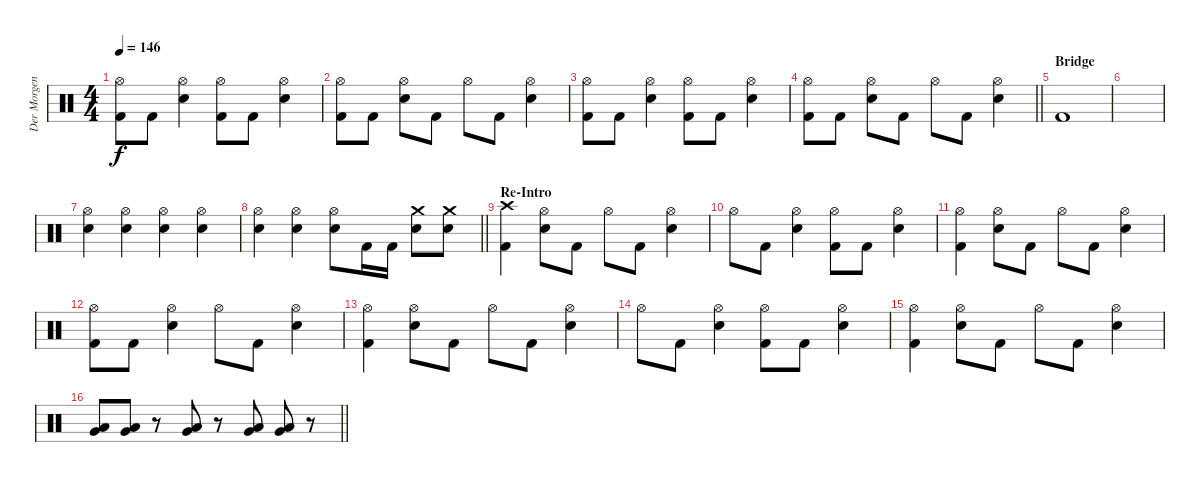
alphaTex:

\track ("Der Morgenstern" "Der Morgen") {instrument percussion}
\staff {score}
\articulation defaults
\ts (4 4)
\tempo 146
\clef neutral
\ks c
("Hi-Hat (open)" "Kick (hit) 2").8{dy f} "Kick (hit) 2".8 ("Hi-Hat (open)" "Electric Snare (hit)").4 ("Hi-Hat (open)" "Kick (hit) 2").8 "Kick (hit) 2".8 ("Hi-Hat (open)" "Electric Snare (hit)").4 |
("Hi-Hat (open)" "Kick (hit) 2").8 "Kick (hit) 2".8 ("Hi-Hat (open)" "Electric Snare (hit)").8 "Kick (hit) 2".8 "Hi-Hat (open)".8 "Kick (hit) 2".8 ("Hi-Hat (open)" "Electric Snare (hit)").4 |
("Hi-Hat (open)" "Kick (hit) 2").8 "Kick (hit) 2".8 ("Hi-Hat (open)" "Electric Snare (hit)").4 ("Hi-Hat (open)" "Kick (hit) 2").8 "Kick (hit) 2".8 ("Hi-Hat (open)" "Electric Snare (hit)").4 |
\barLineRight lightlight
("Hi-Hat (open)" "Kick (hit) 2").8 "Kick (hit) 2".8 ("Hi-Hat (open)" "Electric Snare (hit)").8 "Kick (hit) 2".8 "Hi-Hat (open)".8 "Kick (hit) 2".8 ("Hi-Hat (open)" "Electric Snare (hit)").4 |
\section ("" "Bridge")
"Kick (hit) 2".1 |
|
("Hi-Hat (open)" "Electric Snare (hit)").4 ("Hi-Hat (open)" "Electric Snare (hit)").4 ("Hi-Hat (open)" "Electric Snare (hit)").4 ("Hi-Hat (open)" "Electric Snare (hit)").4 |
\barLineRight lightlight
("Hi-Hat (open)" "Electric Snare (hit)").4 ("Hi-Hat (open)" "Electric Snare (hit)").4 ("Hi-Hat (open)" "Electric Snare (hit)").8 "Kick (hit) 2".16 "Kick (hit) 2".16 ("Crash medium (hit)" "Electric Snare (hit)").8 ("Crash medium (hit)" "Electric Snare (hit)").8 |
\section ("" "Re-Intro")
("Crash high (hit)" "Kick (hit) 2").4 ("Hi-Hat (open)" "Electric Snare (hit)").8 "Kick (hit) 2".8 "Hi-Hat (open)".8 "Kick (hit) 2".8 ("Hi-Hat (open)" "Electric Snare (hit)").4 |
"Hi-Hat (open)".8 "Kick (hit) 2".8 ("Hi-Hat (open)" "Electric Snare (hit)").4 ("Hi-Hat (open)" "Kick (hit) 2").8 "Kick (hit) 2".8 ("Hi-Hat (open)" "Electric Snare (hit)").4 |
("Hi-Hat (open)" "Kick (hit) 2").4 ("Hi-Hat (open)" "Electric Snare (hit)").8 "Kick (hit) 2".8 "Hi-Hat (open)".8 "Kick (hit) 2".8 ("Hi-Hat (open)" "Electric Snare (hit)").4 |
("Hi-Hat (open)" "Kick (hit) 2").8 "Kick (hit) 2".8 ("Hi-Hat (open)" "Electric Snare (hit)").4 "Hi-Hat (open)".8 "Kick (hit) 2".8 ("Hi-Hat (open)" "Electric Snare (hit)").4 |
("Hi-Hat (open)" "Kick (hit) 2").4 ("Hi-Hat (open)" "Electric Snare (hit)").8 "Kick (hit) 2".8 "Hi-Hat (open)".8 "Kick (hit) 2".8 ("Hi-Hat (open)" "Electric Snare (hit)").4 |
"Hi-Hat (open)".8 "Kick (hit) 2".8 ("Hi-Hat (open)" "Electric Snare (hit)").4 ("Hi-Hat (open)" "Kick (hit) 2").8 "Kick (hit) 2".8 ("Hi-Hat (open)" "Electric Snare (hit)").4 |
("Hi-Hat (open)" "Kick (hit) 2").4 ("Hi-Hat (open)" "Electric Snare (hit)").8 "Kick (hit) 2".8 "Hi-Hat (open)".8 "Kick (hit) 2".8 ("Hi-Hat (open)" "Electric Snare (hit)").4 |
\barLineRight lightlight
("Very Low Tom (hit)" "Low Floor Tom (hit)").8 ("Very Low Tom (hit)" "Low Floor Tom (hit)").8 r.8 ("Very Low Tom (hit)" "Low Floor Tom (hit)").8 r.8 ("Very Low Tom (hit)" "Low Floor Tom (hit)").8 ("Very Low Tom (hit)" "Low Floor Tom (hit)").8 r.8
